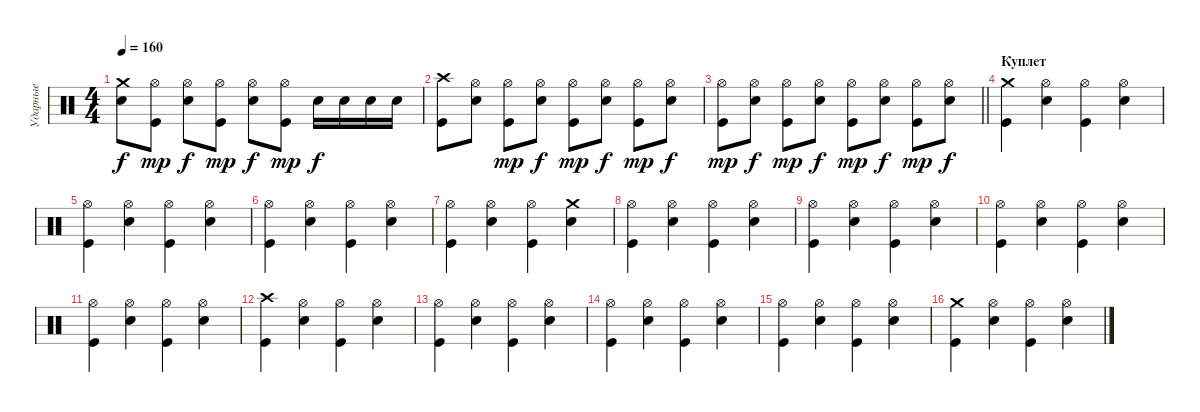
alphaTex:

\track ("Ударные" "Ударные") {instrument percussion}
\staff {score}
\articulation defaults
\ts (4 4)
\tempo 160
\clef neutral
\ks c
("Crash medium (hit)" "Electric Snare (hit)").8{dy f} ("Hi-Hat (open)" "Kick (hit)").8{dy mp} ("Hi-Hat (open)" "Electric Snare (hit)").8{dy f} ("Hi-Hat (open)" "Kick (hit)").8{dy mp} ("Hi-Hat (open)" "Electric Snare (hit)").8{dy f} ("Hi-Hat (open)" "Kick (hit)").8{dy mp} "Electric Snare (hit)".16{dy f} "Electric Snare (hit)".16 "Electric Snare (hit)".16 "Electric Snare (hit)".16 |
("Crash high (hit)" "Kick (hit)").8 ("Hi-Hat (open)" "Electric Snare (hit)").8 ("Hi-Hat (open)" "Kick (hit)").8{dy mp} ("Hi-Hat (open)" "Electric Snare (hit)").8{dy f} ("Hi-Hat (open)" "Kick (hit)").8{dy mp} ("Hi-Hat (open)" "Electric Snare (hit)").8{dy f} ("Hi-Hat (open)" "Kick (hit)").8{dy mp} ("Hi-Hat (open)" "Electric Snare (hit)").8{dy f} |
\barLineRight lightlight
("Hi-Hat (open)" "Kick (hit)").8{dy mp} ("Hi-Hat (open)" "Electric Snare (hit)").8{dy f} ("Hi-Hat (open)" "Kick (hit)").8{dy mp} ("Hi-Hat (open)" "Electric Snare (hit)").8{dy f} ("Hi-Hat (open)" "Kick (hit)").8{dy mp} ("Hi-Hat (open)" "Electric Snare (hit)").8{dy f} ("Hi-Hat (open)" "Kick (hit)").8{dy mp} ("Hi-Hat (open)" "Electric Snare (hit)").8{dy f} |
\section ("" "Куплет")
("Crash medium (hit)" "Kick (hit)").4 ("Hi-Hat (open)" "Electric Snare (hit)").4 ("Hi-Hat (open)" "Kick (hit)").4 ("Hi-Hat (open)" "Electric Snare (hit)").4 |
("Hi-Hat (open)" "Kick (hit)").4 ("Hi-Hat (open)" "Electric Snare (hit)").4 ("Hi-Hat (open)" "Kick (hit)").4 ("Hi-Hat (open)" "Electric Snare (hit)").4 |
("Hi-Hat (open)" "Kick (hit)").4 ("Hi-Hat (open)" "Electric Snare (hit)").4 ("Hi-Hat (open)" "Kick (hit)").4 ("Hi-Hat (open)" "Electric Snare (hit)").4 |
("Hi-Hat (open)" "Kick (hit)").4 ("Hi-Hat (open)" "Electric Snare (hit)").4 ("Hi-Hat (open)" "Kick (hit)").4 ("Crash medium (hit)" "Electric Snare (hit)").4 |
("Hi-Hat (open)" "Kick (hit)").4 ("Hi-Hat (open)" "Electric Snare (hit)").4 ("Hi-Hat (open)" "Kick (hit)").4 ("Hi-Hat (open)" "Electric Snare (hit)").4 |
("Hi-Hat (open)" "Kick (hit)").4 ("Hi-Hat (open)" "Electric Snare (hit)").4 ("Hi-Hat (open)" "Kick (hit)").4 ("Hi-Hat (open)" "Electric Snare (hit)").4 |
("Hi-Hat (open)" "Kick (hit)").4 ("Hi-Hat (open)" "Electric Snare (hit)").4 ("Hi-Hat (open)" "Kick (hit)").4 ("Hi-Hat (open)" "Electric Snare (hit)").4 |
("Hi-Hat (open)" "Kick (hit)").4 ("Hi-Hat (open)" "Electric Snare (hit)").4 ("Hi-Hat (open)" "Kick (hit)").4 ("Hi-Hat (open)" "Electric Snare (hit)").4 |
("Crash high (hit)" "Kick (hit)").4 ("Hi-Hat (open)" "Electric Snare (hit)").4 ("Hi-Hat (open)" "Kick (hit)").4 ("Hi-Hat (open)" "Electric Snare (hit)").4 |
("Hi-Hat (open)" "Kick (hit)").4 ("Hi-Hat (open)" "Electric Snare (hit)").4 ("Hi-Hat (open)" "Kick (hit)").4 ("Hi-Hat (open)" "Electric Snare (hit)").4 |
("Hi-Hat (open)" "Kick (hit)").4 ("Hi-Hat (open)" "Electric Snare (hit)").4 ("Hi-Hat (open)" "Kick (hit)").4 ("Hi-Hat (open)" "Electric Snare (hit)").4 |
("Hi-Hat (open)" "Kick (hit)").4 ("Hi-Hat (open)" "Electric Snare (hit)").4 ("Hi-Hat (open)" "Kick (hit)").4 ("Hi-Hat (open)" "Electric Snare (hit)").4 |
("Crash medium (hit)" "Kick (hit)").4 ("Hi-Hat (open)" "Electric Snare (hit)").4 ("Hi-Hat (open)" "Kick (hit)").4 ("Hi-Hat (open)" "Electric Snare (hit)").4
